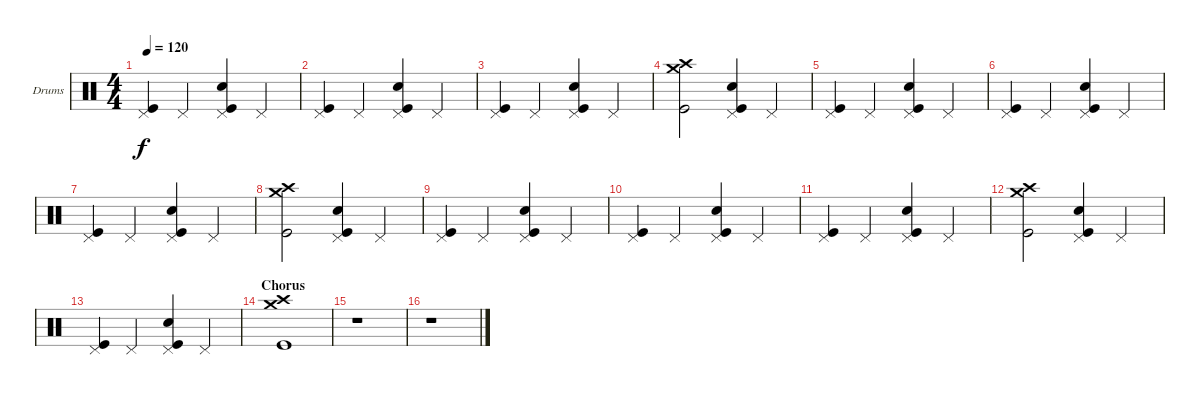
\bracketExtendMode groupsimilarinstruments
\firstSystemTrackNameOrientation horizontal
\otherSystemsTrackNameOrientation horizontal
\track ("Drumkit" "Drums") {instrument percussion}
\staff {score}
\articulation defaults
\ts (4 4)
\tempo 120
\clef neutral
\ks c
("Pedal Hi-Hat (hit)" "Kick (hit)").4{dy f} "Pedal Hi-Hat (hit)".4 ("Pedal Hi-Hat (hit)" "Snare (hit) 2" "Kick (hit)").4 "Pedal Hi-Hat (hit)".4 |
("Pedal Hi-Hat (hit)" "Kick (hit)").4 "Pedal Hi-Hat (hit)".4 ("Pedal Hi-Hat (hit)" "Snare (hit) 2" "Kick (hit)").4 "Pedal Hi-Hat (hit)".4 |
("Pedal Hi-Hat (hit)" "Kick (hit)").4 "Pedal Hi-Hat (hit)".4 ("Pedal Hi-Hat (hit)" "Snare (hit) 2" "Kick (hit)").4 "Pedal Hi-Hat (hit)".4 |
("Crash medium (hit)" "Crash high (hit)" "Kick (hit)").2 ("Pedal Hi-Hat (hit)" "Snare (hit) 2" "Kick (hit)").4 "Pedal Hi-Hat (hit)".4 |
("Pedal Hi-Hat (hit)" "Kick (hit)").4 "Pedal Hi-Hat (hit)".4 ("Pedal Hi-Hat (hit)" "Snare (hit) 2" "Kick (hit)").4 "Pedal Hi-Hat (hit)".4 |
("Pedal Hi-Hat (hit)" "Kick (hit)").4 "Pedal Hi-Hat (hit)".4 ("Pedal Hi-Hat (hit)" "Snare (hit) 2" "Kick (hit)").4 "Pedal Hi-Hat (hit)".4 |
("Pedal Hi-Hat (hit)" "Kick (hit)").4 "Pedal Hi-Hat (hit)".4 ("Pedal Hi-Hat (hit)" "Snare (hit) 2" "Kick (hit)").4 "Pedal Hi-Hat (hit)".4 |
("Crash medium (hit)" "Crash high (hit)" "Kick (hit)").2 ("Pedal Hi-Hat (hit)" "Snare (hit) 2" "Kick (hit)").4 "Pedal Hi-Hat (hit)".4 |
("Pedal Hi-Hat (hit)" "Kick (hit)").4 "Pedal Hi-Hat (hit)".4 ("Pedal Hi-Hat (hit)" "Snare (hit) 2" "Kick (hit)").4 "Pedal Hi-Hat (hit)".4 |
("Pedal Hi-Hat (hit)" "Kick (hit)").4 "Pedal Hi-Hat (hit)".4 ("Pedal Hi-Hat (hit)" "Snare (hit) 2" "Kick (hit)").4 "Pedal Hi-Hat (hit)".4 |
("Pedal Hi-Hat (hit)" "Kick (hit)").4 "Pedal Hi-Hat (hit)".4 ("Pedal Hi-Hat (hit)" "Snare (hit) 2" "Kick (hit)").4 "Pedal Hi-Hat (hit)".4 |
("Crash medium (hit)" "Crash high (hit)" "Kick (hit)").2 ("Pedal Hi-Hat (hit)" "Snare (hit) 2" "Kick (hit)").4 "Pedal Hi-Hat (hit)".4 |
("Pedal Hi-Hat (hit)" "Kick (hit)").4 "Pedal Hi-Hat (hit)".4 ("Pedal Hi-Hat (hit)" "Snare (hit) 2" "Kick (hit)").4 "Pedal Hi-Hat (hit)".4 |
\section ("" "Chorus")
("Crash high (hit)" "Crash medium (hit)" "Kick (hit)").1 |
r.1 |
r.1
